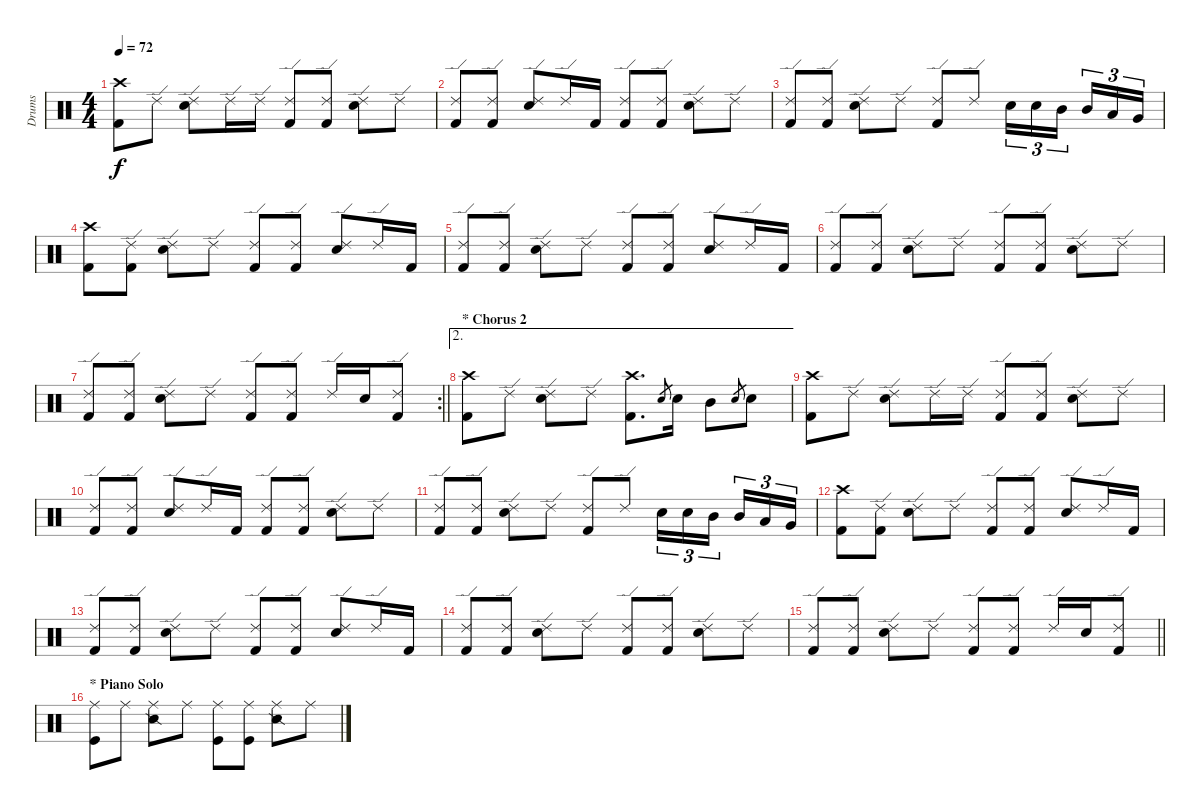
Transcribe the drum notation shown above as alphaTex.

\track ("Drums" "Drums") {instrument percussion}
\staff {score}
\articulation defaults
\ts (4 4)
\tempo 72
\clef neutral
\ks c
("Crash high (hit)" "Kick (hit) 2").8{dy f} "Ride (edge) 2".8 ("Ride (edge) 2" "Electric Snare (hit)").8 "Ride (edge) 2".16 "Ride (edge) 2".16 ("Ride (edge) 2" "Kick (hit) 2").8 ("Ride (edge) 2" "Kick (hit) 2").8 ("Ride (edge) 2" "Electric Snare (hit)").8 "Ride (edge) 2".8 |
("Ride (edge) 2" "Kick (hit) 2").8 ("Ride (edge) 2" "Kick (hit) 2").8 ("Ride (edge) 2" "Electric Snare (hit)").8 "Ride (edge) 2".16 "Kick (hit) 2".16 ("Ride (edge) 2" "Kick (hit) 2").8 ("Ride (edge) 2" "Kick (hit) 2").8 ("Ride (edge) 2" "Electric Snare (hit)").8 "Ride (edge) 2".8 |
("Ride (edge) 2" "Kick (hit) 2").8 ("Ride (edge) 2" "Kick (hit) 2").8 ("Ride (edge) 2" "Electric Snare (hit)").8 "Ride (edge) 2".8 ("Ride (edge) 2" "Kick (hit) 2").8 "Ride (edge) 2".8 "Electric Snare (hit)".16{tu (3 2)} "Electric Snare (hit)".16{tu (3 2)} "Mid Tom (hit)".16{tu (3 2) beam splitsecondary} "Mid Tom (hit)".16{tu (3 2)} "Low Tom (hit)".16{tu (3 2)} "Very Low Tom (hit)".16{tu (3 2)} |
("Crash high (hit)" "Kick (hit) 2").8 ("Ride (edge) 2" "Kick (hit) 2").8 ("Ride (edge) 2" "Electric Snare (hit)").8 "Ride (edge) 2".8 ("Ride (edge) 2" "Kick (hit) 2").8 ("Ride (edge) 2" "Kick (hit) 2").8 ("Ride (edge) 2" "Electric Snare (hit)").8 "Ride (edge) 2".16 "Kick (hit) 2".16 |
("Ride (edge) 2" "Kick (hit) 2").8 ("Ride (edge) 2" "Kick (hit) 2").8 ("Ride (edge) 2" "Electric Snare (hit)").8 "Ride (edge) 2".8 ("Ride (edge) 2" "Kick (hit) 2").8 ("Ride (edge) 2" "Kick (hit) 2").8 ("Ride (edge) 2" "Electric Snare (hit)").8 "Ride (edge) 2".16 "Kick (hit) 2".16 |
("Ride (edge) 2" "Kick (hit) 2").8 ("Ride (edge) 2" "Kick (hit) 2").8 ("Ride (edge) 2" "Electric Snare (hit)").8 "Ride (edge) 2".8 ("Ride (edge) 2" "Kick (hit) 2").8 ("Ride (edge) 2" "Kick (hit) 2").8 ("Ride (edge) 2" "Electric Snare (hit)").8 "Ride (edge) 2".8 |
\rc 2
\barLineRight lightlight
("Ride (edge) 2" "Kick (hit) 2").8 ("Ride (edge) 2" "Kick (hit) 2").8 ("Ride (edge) 2" "Electric Snare (hit)").8 "Ride (edge) 2".8 ("Ride (edge) 2" "Kick (hit) 2").8 ("Ride (edge) 2" "Kick (hit) 2").8 "Ride (edge) 2".16 "Electric Snare (hit)".16 ("Ride (edge) 2" "Kick (hit) 2").8 |
\ae 2
\section ("" "* Chorus 2")
("Crash high (hit)" "Kick (hit) 2").8 "Ride (edge) 2".8 ("Ride (edge) 2" "Electric Snare (hit)").8 "Ride (edge) 2".8 ("Crash high (hit)" "Kick (hit) 2").8{d} "Electric Snare (hit)".8{gr} "Electric Snare (hit)".16 "Mid Tom (hit)".8 "Electric Snare (hit)".8{gr} "Electric Snare (hit)".8 |
("Crash high (hit)" "Kick (hit) 2").8 "Ride (edge) 2".8 ("Ride (edge) 2" "Electric Snare (hit)").8 "Ride (edge) 2".16 "Ride (edge) 2".16 ("Ride (edge) 2" "Kick (hit) 2").8 ("Ride (edge) 2" "Kick (hit) 2").8 ("Ride (edge) 2" "Electric Snare (hit)").8 "Ride (edge) 2".8 |
("Ride (edge) 2" "Kick (hit) 2").8 ("Ride (edge) 2" "Kick (hit) 2").8 ("Ride (edge) 2" "Electric Snare (hit)").8 "Ride (edge) 2".16 "Kick (hit) 2".16 ("Ride (edge) 2" "Kick (hit) 2").8 ("Ride (edge) 2" "Kick (hit) 2").8 ("Ride (edge) 2" "Electric Snare (hit)").8 "Ride (edge) 2".8 |
("Ride (edge) 2" "Kick (hit) 2").8 ("Ride (edge) 2" "Kick (hit) 2").8 ("Ride (edge) 2" "Electric Snare (hit)").8 "Ride (edge) 2".8 ("Ride (edge) 2" "Kick (hit) 2").8 "Ride (edge) 2".8 "Electric Snare (hit)".16{tu (3 2)} "Electric Snare (hit)".16{tu (3 2)} "Mid Tom (hit)".16{tu (3 2) beam splitsecondary} "Mid Tom (hit)".16{tu (3 2)} "Low Tom (hit)".16{tu (3 2)} "Very Low Tom (hit)".16{tu (3 2)} |
("Crash high (hit)" "Kick (hit) 2").8 ("Ride (edge) 2" "Kick (hit) 2").8 ("Ride (edge) 2" "Electric Snare (hit)").8 "Ride (edge) 2".8 ("Ride (edge) 2" "Kick (hit) 2").8 ("Ride (edge) 2" "Kick (hit) 2").8 ("Ride (edge) 2" "Electric Snare (hit)").8 "Ride (edge) 2".16 "Kick (hit) 2".16 |
("Ride (edge) 2" "Kick (hit) 2").8 ("Ride (edge) 2" "Kick (hit) 2").8 ("Ride (edge) 2" "Electric Snare (hit)").8 "Ride (edge) 2".8 ("Ride (edge) 2" "Kick (hit) 2").8 ("Ride (edge) 2" "Kick (hit) 2").8 ("Ride (edge) 2" "Electric Snare (hit)").8 "Ride (edge) 2".16 "Kick (hit) 2".16 |
("Ride (edge) 2" "Kick (hit) 2").8 ("Ride (edge) 2" "Kick (hit) 2").8 ("Ride (edge) 2" "Electric Snare (hit)").8 "Ride (edge) 2".8 ("Ride (edge) 2" "Kick (hit) 2").8 ("Ride (edge) 2" "Kick (hit) 2").8 ("Ride (edge) 2" "Electric Snare (hit)").8 "Ride (edge) 2".8 |
\barLineRight lightlight
("Ride (edge) 2" "Kick (hit) 2").8 ("Ride (edge) 2" "Kick (hit) 2").8 ("Ride (edge) 2" "Electric Snare (hit)").8 "Ride (edge) 2".8 ("Ride (edge) 2" "Kick (hit) 2").8 ("Ride (edge) 2" "Kick (hit) 2").8 "Ride (edge) 2".16 "Electric Snare (hit)".16 ("Ride (edge) 2" "Kick (hit) 2").8 |
\section ("" "* Piano Solo")
("Ride (middle)" "Kick (hit)").8 "Ride (middle)".8 ("Ride (middle)" "Snare (side stick) 2").8 "Ride (middle)".8 ("Ride (middle)" "Kick (hit)").8 ("Ride (middle)" "Kick (hit)").8 ("Ride (middle)" "Snare (side stick) 2").8 "Ride (middle)".8
